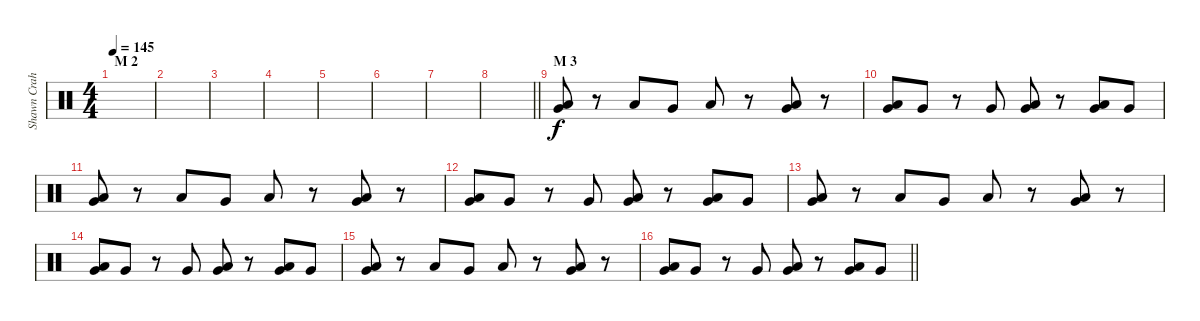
\track ("Shawn Crahan" "Shawn Crah") {instrument percussion}
\staff {score}
\articulation defaults
\ts (4 4)
\section ("" "M 2")
\tempo 145
\clef neutral
\ks c
|
|
|
|
|
|
|
\barLineRight lightlight
|
\section ("" "M 3")
("Very Low Tom (hit)" "Low Floor Tom (hit)").8 r.8 "Low Floor Tom (hit)".8 "Very Low Tom (hit)".8 "Low Floor Tom (hit)".8 r.8 ("Very Low Tom (hit)" "Low Floor Tom (hit)").8 r.8 |
("Very Low Tom (hit)" "Low Floor Tom (hit)").8 "Very Low Tom (hit)".8 r.8 "Very Low Tom (hit)".8 ("Very Low Tom (hit)" "Low Floor Tom (hit)").8 r.8 ("Very Low Tom (hit)" "Low Floor Tom (hit)").8 "Very Low Tom (hit)".8 |
("Very Low Tom (hit)" "Low Floor Tom (hit)").8 r.8 "Low Floor Tom (hit)".8 "Very Low Tom (hit)".8 "Low Floor Tom (hit)".8 r.8 ("Very Low Tom (hit)" "Low Floor Tom (hit)").8 r.8 |
("Very Low Tom (hit)" "Low Floor Tom (hit)").8 "Very Low Tom (hit)".8 r.8 "Very Low Tom (hit)".8 ("Very Low Tom (hit)" "Low Floor Tom (hit)").8 r.8 ("Very Low Tom (hit)" "Low Floor Tom (hit)").8 "Very Low Tom (hit)".8 |
("Very Low Tom (hit)" "Low Floor Tom (hit)").8 r.8 "Low Floor Tom (hit)".8 "Very Low Tom (hit)".8 "Low Floor Tom (hit)".8 r.8 ("Very Low Tom (hit)" "Low Floor Tom (hit)").8 r.8 |
("Very Low Tom (hit)" "Low Floor Tom (hit)").8 "Very Low Tom (hit)".8 r.8 "Very Low Tom (hit)".8 ("Very Low Tom (hit)" "Low Floor Tom (hit)").8 r.8 ("Very Low Tom (hit)" "Low Floor Tom (hit)").8 "Very Low Tom (hit)".8 |
("Very Low Tom (hit)" "Low Floor Tom (hit)").8 r.8 "Low Floor Tom (hit)".8 "Very Low Tom (hit)".8 "Low Floor Tom (hit)".8 r.8 ("Very Low Tom (hit)" "Low Floor Tom (hit)").8 r.8 |
\barLineRight lightlight
("Very Low Tom (hit)" "Low Floor Tom (hit)").8 "Very Low Tom (hit)".8 r.8 "Very Low Tom (hit)".8 ("Very Low Tom (hit)" "Low Floor Tom (hit)").8 r.8 ("Very Low Tom (hit)" "Low Floor Tom (hit)").8 "Very Low Tom (hit)".8
